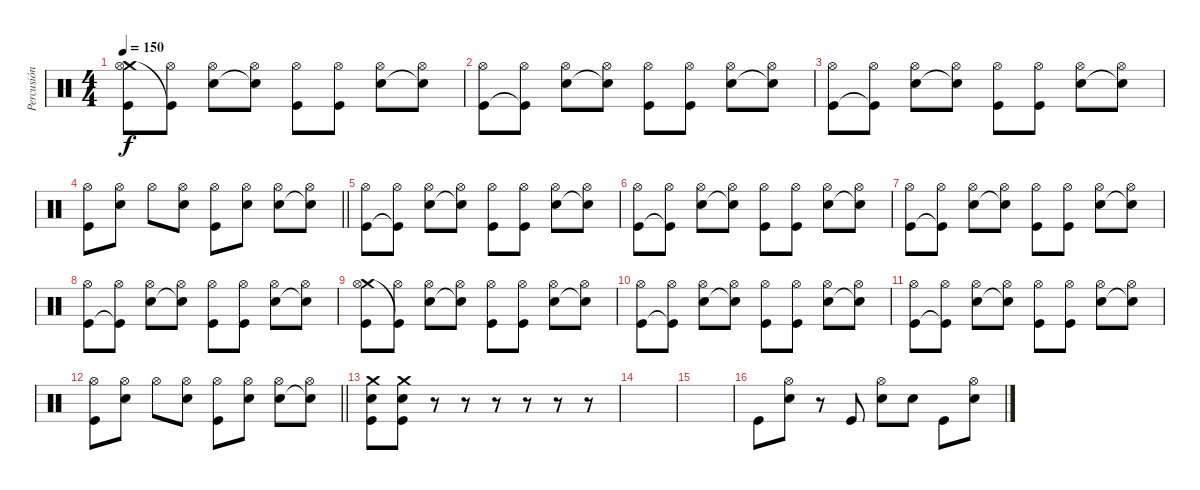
\track ("Percusión" "Percusión") {instrument percussion}
\staff {score}
\articulation defaults
\ts (4 4)
\tempo 150
\clef neutral
\ks c
("Crash medium (hit)" "Hi-Hat (open)" "Kick (hit)").8{dy f} ("Hi-Hat (open)" "Kick (hit)"{t}).8 ("Hi-Hat (open)" "Electric Snare (hit)").8 ("Hi-Hat (open)" "Snare (hit)"{t}).8 ("Hi-Hat (open)" "Kick (hit)").8 ("Hi-Hat (open)" "Kick (hit)").8 ("Hi-Hat (open)" "Electric Snare (hit)").8 ("Hi-Hat (open)" "Snare (hit)"{t}).8 |
("Hi-Hat (open)" "Kick (hit)").8 ("Hi-Hat (open)" "Kick (hit)"{t}).8 ("Hi-Hat (open)" "Electric Snare (hit)").8 ("Hi-Hat (open)" "Snare (hit)"{t}).8 ("Hi-Hat (open)" "Kick (hit)").8 ("Hi-Hat (open)" "Kick (hit)").8 ("Hi-Hat (open)" "Electric Snare (hit)").8 ("Hi-Hat (open)" "Snare (hit)"{t}).8 |
("Hi-Hat (open)" "Kick (hit)").8 ("Hi-Hat (open)" "Kick (hit)"{t}).8 ("Hi-Hat (open)" "Electric Snare (hit)").8 ("Hi-Hat (open)" "Snare (hit)"{t}).8 ("Hi-Hat (open)" "Kick (hit)").8 ("Hi-Hat (open)" "Kick (hit)").8 ("Hi-Hat (open)" "Electric Snare (hit)").8 ("Hi-Hat (open)" "Snare (hit)"{t}).8 |
\barLineRight lightlight
("Hi-Hat (open)" "Kick (hit)").8 ("Hi-Hat (open)" "Electric Snare (hit)").8 "Hi-Hat (open)".8 ("Hi-Hat (open)" "Electric Snare (hit)").8 ("Hi-Hat (open)" "Kick (hit)").8 ("Hi-Hat (open)" "Electric Snare (hit)").8 ("Hi-Hat (open)" "Electric Snare (hit)").8 ("Hi-Hat (open)" "Snare (hit)"{t}).8 |
("Hi-Hat (open)" "Kick (hit)").8 ("Hi-Hat (open)" "Kick (hit)"{t}).8 ("Hi-Hat (open)" "Electric Snare (hit)").8 ("Hi-Hat (open)" "Snare (hit)"{t}).8 ("Hi-Hat (open)" "Kick (hit)").8 ("Hi-Hat (open)" "Kick (hit)").8 ("Hi-Hat (open)" "Electric Snare (hit)").8 ("Hi-Hat (open)" "Snare (hit)"{t}).8 |
("Hi-Hat (open)" "Kick (hit)").8 ("Hi-Hat (open)" "Kick (hit)"{t}).8 ("Hi-Hat (open)" "Electric Snare (hit)").8 ("Hi-Hat (open)" "Snare (hit)"{t}).8 ("Hi-Hat (open)" "Kick (hit)").8 ("Hi-Hat (open)" "Kick (hit)").8 ("Hi-Hat (open)" "Electric Snare (hit)").8 ("Hi-Hat (open)" "Snare (hit)"{t}).8 |
("Hi-Hat (open)" "Kick (hit)").8 ("Hi-Hat (open)" "Kick (hit)"{t}).8 ("Hi-Hat (open)" "Electric Snare (hit)").8 ("Hi-Hat (open)" "Snare (hit)"{t}).8 ("Hi-Hat (open)" "Kick (hit)").8 ("Hi-Hat (open)" "Kick (hit)").8 ("Hi-Hat (open)" "Electric Snare (hit)").8 ("Hi-Hat (open)" "Snare (hit)"{t}).8 |
("Hi-Hat (open)" "Kick (hit)").8 ("Hi-Hat (open)" "Kick (hit)"{t}).8 ("Hi-Hat (open)" "Electric Snare (hit)").8 ("Hi-Hat (open)" "Snare (hit)"{t}).8 ("Hi-Hat (open)" "Kick (hit)").8 ("Hi-Hat (open)" "Kick (hit)").8 ("Hi-Hat (open)" "Electric Snare (hit)").8 ("Hi-Hat (open)" "Snare (hit)"{t}).8 |
("Crash medium (hit)" "Hi-Hat (open)" "Kick (hit)").8 ("Hi-Hat (open)" "Kick (hit)"{t}).8 ("Hi-Hat (open)" "Electric Snare (hit)").8 ("Hi-Hat (open)" "Snare (hit)"{t}).8 ("Hi-Hat (open)" "Kick (hit)").8 ("Hi-Hat (open)" "Kick (hit)").8 ("Hi-Hat (open)" "Electric Snare (hit)").8 ("Hi-Hat (open)" "Snare (hit)"{t}).8 |
("Hi-Hat (open)" "Kick (hit)").8 ("Hi-Hat (open)" "Kick (hit)"{t}).8 ("Hi-Hat (open)" "Electric Snare (hit)").8 ("Hi-Hat (open)" "Snare (hit)"{t}).8 ("Hi-Hat (open)" "Kick (hit)").8 ("Hi-Hat (open)" "Kick (hit)").8 ("Hi-Hat (open)" "Electric Snare (hit)").8 ("Hi-Hat (open)" "Snare (hit)"{t}).8 |
("Hi-Hat (open)" "Kick (hit)").8 ("Hi-Hat (open)" "Kick (hit)"{t}).8 ("Hi-Hat (open)" "Electric Snare (hit)").8 ("Hi-Hat (open)" "Snare (hit)"{t}).8 ("Hi-Hat (open)" "Kick (hit)").8 ("Hi-Hat (open)" "Kick (hit)").8 ("Hi-Hat (open)" "Electric Snare (hit)").8 ("Hi-Hat (open)" "Snare (hit)"{t}).8 |
\barLineRight lightlight
("Hi-Hat (open)" "Kick (hit)").8 ("Hi-Hat (open)" "Electric Snare (hit)").8 "Hi-Hat (open)".8 ("Hi-Hat (open)" "Electric Snare (hit)").8 ("Hi-Hat (open)" "Kick (hit)").8 ("Hi-Hat (open)" "Electric Snare (hit)").8 ("Hi-Hat (open)" "Electric Snare (hit)").8 ("Hi-Hat (open)" "Snare (hit)"{t}).8 |
("Crash medium (hit)" "Electric Snare (hit)" "Kick (hit)").8 ("Crash medium (hit)" "Electric Snare (hit)" "Kick (hit)").8 r.8 r.8 r.8 r.8 r.8 r.8 |
|
|
"Kick (hit)".8 ("Hi-Hat (open)" "Electric Snare (hit)").8 r.8 "Kick (hit)".8 ("Hi-Hat (open)" "Electric Snare (hit)").8 "Electric Snare (hit)".8 "Kick (hit)".8 ("Hi-Hat (open)" "Electric Snare (hit)").8
